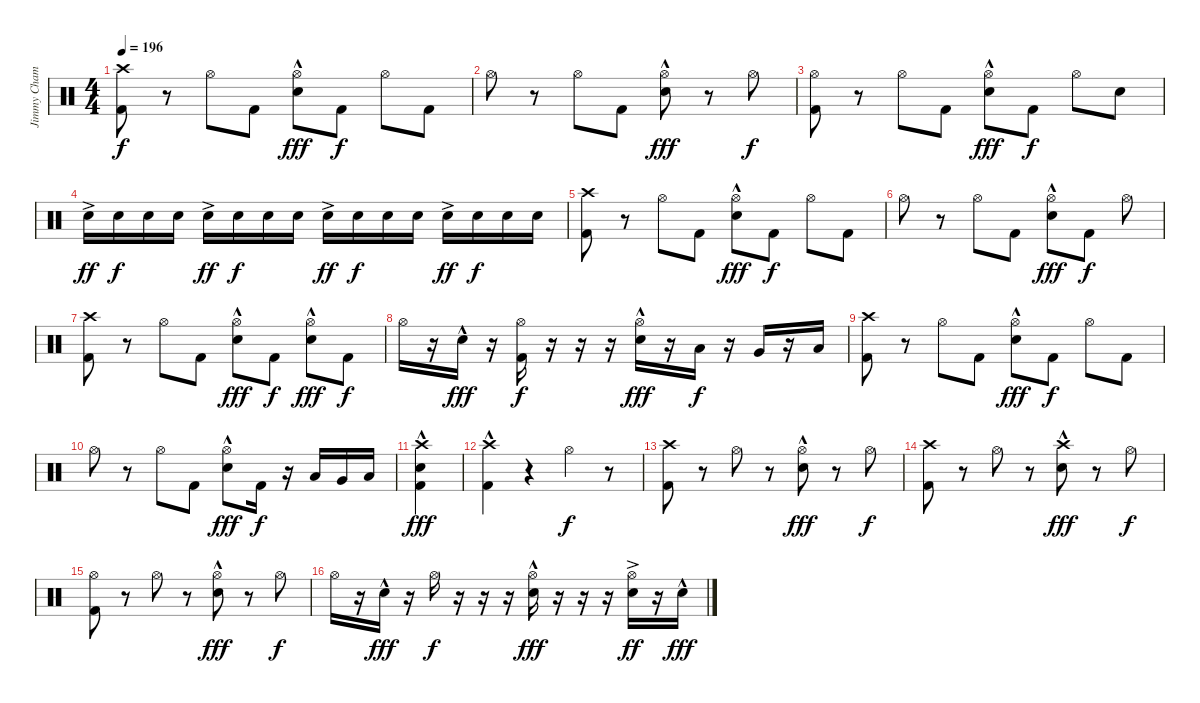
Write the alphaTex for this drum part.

\track ("Jimmy Chamberlin" "Jimmy Cham") {instrument percussion}
\staff {score}
\articulation defaults
\ts (4 4)
\tempo 196
\clef neutral
\ks c
("Crash high (hit)" "Kick (hit) 2").8{dy f} r.8 "Hi-Hat (open)".8 "Kick (hit) 2".8 ("Hi-Hat (open)" "Electric Snare (hit)"{hac}).8{dy fff} "Kick (hit) 2".8{dy f} "Hi-Hat (open)".8 "Kick (hit) 2".8 |
"Hi-Hat (open)".8 r.8 "Hi-Hat (open)".8 "Kick (hit) 2".8 ("Hi-Hat (open)" "Electric Snare (hit)"{hac}).8{dy fff} r.8 "Hi-Hat (open)".8{dy f} |
("Hi-Hat (open)" "Kick (hit) 2").8 r.8 "Hi-Hat (open)".8 "Kick (hit) 2".8 ("Hi-Hat (open)" "Electric Snare (hit)"{hac}).8{dy fff} "Kick (hit) 2".8{dy f} "Hi-Hat (open)".8 "Electric Snare (hit)".8 |
"Electric Snare (hit)"{ac}.16{dy ff} "Electric Snare (hit)".16{dy f} "Electric Snare (hit)".16 "Electric Snare (hit)".16 "Electric Snare (hit)"{ac}.16{dy ff} "Electric Snare (hit)".16{dy f} "Electric Snare (hit)".16 "Electric Snare (hit)".16 "Electric Snare (hit)"{ac}.16{dy ff} "Electric Snare (hit)".16{dy f} "Electric Snare (hit)".16 "Electric Snare (hit)".16 "Electric Snare (hit)"{ac}.16{dy ff} "Electric Snare (hit)".16{dy f} "Electric Snare (hit)".16 "Electric Snare (hit)".16 |
("Crash high (hit)" "Kick (hit) 2").8 r.8 "Hi-Hat (open)".8 "Kick (hit) 2".8 ("Hi-Hat (open)" "Electric Snare (hit)"{hac}).8{dy fff} "Kick (hit) 2".8{dy f} "Hi-Hat (open)".8 "Kick (hit) 2".8 |
"Hi-Hat (open)".8 r.8 "Hi-Hat (open)".8 "Kick (hit) 2".8 ("Hi-Hat (open)" "Electric Snare (hit)"{hac}).8{dy fff} "Kick (hit) 2".8{dy f} "Hi-Hat (open)".8 |
("Crash high (hit)" "Kick (hit) 2").8 r.8 "Hi-Hat (open)".8 "Kick (hit) 2".8 ("Hi-Hat (open)" "Electric Snare (hit)"{hac}).8{dy fff} "Kick (hit) 2".8{dy f} ("Hi-Hat (open)" "Electric Snare (hit)"{hac}).8{dy fff} "Kick (hit) 2".8{dy f} |
"Hi-Hat (open)".16 r.16 "Electric Snare (hit)"{hac}.16{dy fff} r.16 ("Hi-Hat (open)" "Kick (hit) 2").16{dy f} r.16 r.16 r.16 ("Hi-Hat (open)" "Electric Snare (hit)"{hac}).16{dy fff} r.16 "Low Tom (hit)".16{dy f} r.16 "Very Low Tom (hit)".16 r.16 "Low Floor Tom (hit)".16 |
("Crash high (hit)" "Kick (hit) 2").8 r.8 "Hi-Hat (open)".8 "Kick (hit) 2".8 ("Hi-Hat (open)" "Electric Snare (hit)"{hac}).8{dy fff} "Kick (hit) 2".8{dy f} "Hi-Hat (open)".8 "Kick (hit) 2".8 |
"Hi-Hat (open)".8 r.8 "Hi-Hat (open)".8 "Kick (hit) 2".8 ("Hi-Hat (open)" "Electric Snare (hit)"{hac}).8{dy fff} "Kick (hit) 2".16{dy f} r.16 "Low Tom (hit)".16 "Very Low Tom (hit)".16 "Low Floor Tom (hit)".16 |
("Crash high (hit)" "Electric Snare (hit)"{hac} "Kick (hit) 2"{hac}).4{dy fff} |
("Crash high (hit)" "Kick (hit) 2"{hac}).4 r.4 "Hi-Hat (open)".4{dy f} r.8 |
("Crash high (hit)" "Kick (hit) 2").8 r.8 "Hi-Hat (open)".8 r.8 ("Hi-Hat (open)" "Electric Snare (hit)"{hac}).8{dy fff} r.8 "Hi-Hat (open)".8{dy f} |
("Crash high (hit)" "Kick (hit) 2").8 r.8 "Hi-Hat (open)".8 r.8 ("Crash high (hit)" "Electric Snare (hit)"{hac}).8{dy fff} r.8 "Hi-Hat (open)".8{dy f} |
("Hi-Hat (open)" "Kick (hit) 2").8 r.8 "Hi-Hat (open)".8 r.8 ("Hi-Hat (open)" "Electric Snare (hit)"{hac}).8{dy fff} r.8 "Hi-Hat (open)".8{dy f} |
"Hi-Hat (open)".16 r.16 "Electric Snare (hit)"{hac}.16{dy fff} r.16 "Hi-Hat (open)".16{dy f} r.16 r.16 r.16 ("Hi-Hat (open)" "Electric Snare (hit)"{hac}).16{dy fff} r.16 r.16 r.16 ("Hi-Hat (open)" "Electric Snare (hit)"{ac}).16{dy ff} r.16 "Electric Snare (hit)"{hac}.16{dy fff}
